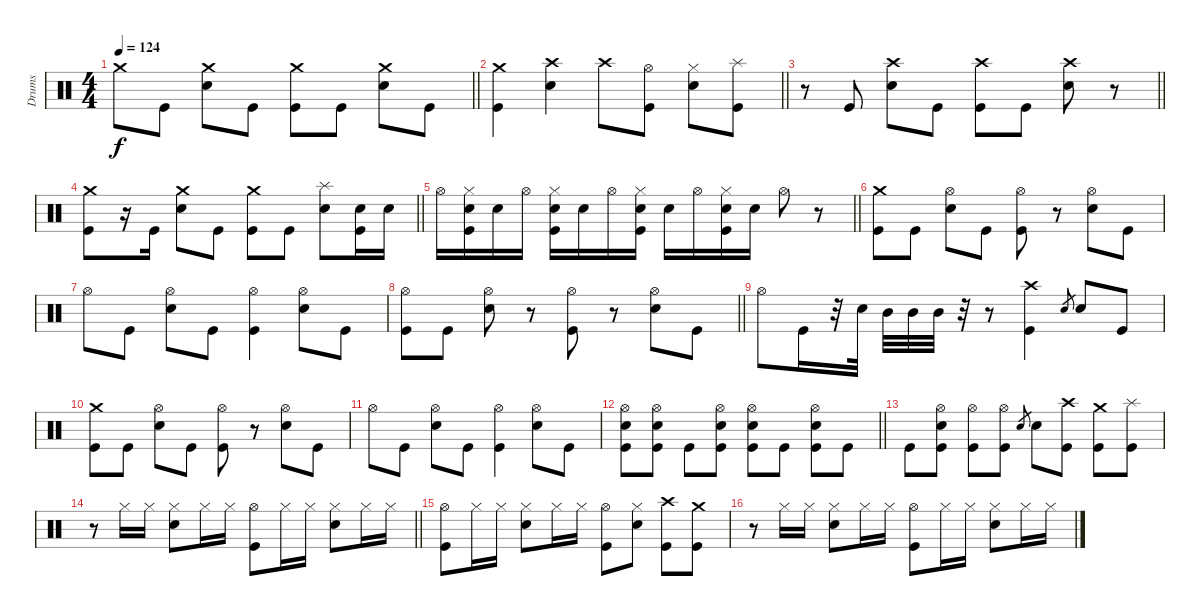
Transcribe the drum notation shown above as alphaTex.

\track ("Drums" "Drums") {instrument percussion}
\staff {score}
\articulation defaults
\ts (4 4)
\tempo 124
\clef neutral
\barLineRight lightlight
\ks c "Crash medium (hit)".8{dy f} "Kick (hit)".8
("Crash medium (hit)" "Snare (hit) 2").8 "Kick (hit)".8 ("Crash medium (hit)" "Kick (hit)").8 "Kick (hit)".8 ("Crash medium (hit)" "Snare (hit) 2").8 "Kick (hit)".8 |
\barLineRight lightlight
("Crash medium (hit)" "Kick (hit)").4 ("Crash high (hit)" "Snare (hit) 2").4 "Crash high (hit)".8 ("Hi-Hat (open)" "Kick (hit)").8 ("Hi-Hat (closed)" "Snare (hit) 2").8 ("Splash (hit)" "Kick (hit)").8 |
\barLineRight lightlight
r.8 "Kick (hit)".8 ("Crash high (hit)" "Snare (hit) 2").8 "Kick (hit)".8 ("Crash high (hit)" "Kick (hit)").8 "Kick (hit)".8 ("Crash high (hit)" "Snare (hit) 2").8 r.8 |
\barLineRight lightlight
("Crash medium (hit)" "Kick (hit)").8 r.16 "Kick (hit)".16 ("Crash medium (hit)" "Snare (hit) 2").8 "Kick (hit)".8 ("Crash medium (hit)" "Kick (hit)").8 "Kick (hit)".8 ("Splash (hit)" "Snare (hit) 2").8 ("Snare (hit) 2" "Kick (hit)").16 "Snare (hit) 2".16 |
\barLineRight lightlight "Hi-Hat (open)".16
("Hi-Hat (closed)" "Snare (hit) 2" "Kick (hit)").16 "Snare (hit) 2".16 "Hi-Hat (open)".16 ("Hi-Hat (closed)" "Snare (hit) 2" "Kick (hit)").16 "Snare (hit) 2".16 "Hi-Hat (open)".16 ("Hi-Hat (closed)" "Snare (hit) 2" "Kick (hit)").16 "Snare (hit) 2".16 "Hi-Hat (open)".16 ("Hi-Hat (closed)" "Snare (hit) 2" "Kick (hit)").16 "Snare (hit) 2".16 "Hi-Hat (open)".8 r.8 |
("Crash medium (hit)" "Kick (hit)").8 "Kick (hit)".8 ("Hi-Hat (open)" "Snare (hit) 2").8 "Kick (hit)".8 ("Hi-Hat (open)" "Kick (hit)").8 r.8 ("Hi-Hat (open)" "Snare (hit) 2").8 "Kick (hit)".8 |
"Hi-Hat (open)".8 "Kick (hit)".8 ("Hi-Hat (open)" "Snare (hit) 2").8 "Kick (hit)".8 ("Hi-Hat (open)" "Kick (hit)").4 ("Hi-Hat (open)" "Snare (hit) 2").8 "Kick (hit)".8 |
\barLineRight lightlight
("Hi-Hat (open)" "Kick (hit)").8 "Kick (hit)".8 ("Hi-Hat (open)" "Snare (hit) 2").8 r.8 ("Hi-Hat (open)" "Kick (hit)").8 r.8 ("Hi-Hat (open)" "Snare (hit) 2").8 "Kick (hit)".8 |
"Hi-Hat (open)".8 "Kick (hit)".16 r.32 "Snare (hit) 2".32 "Mid Tom (hit)".32 "Mid Tom (hit)".32 "Mid Tom (hit)".32 r.32 r.8 ("Crash high (hit)" "Kick (hit)").4 "Snare (hit) 2".8{gr} "Snare (hit) 2".8 "Kick (hit)".8 |
("Crash medium (hit)" "Kick (hit)").8 "Kick (hit)".8 ("Hi-Hat (open)" "Snare (hit) 2").8 "Kick (hit)".8 ("Hi-Hat (open)" "Kick (hit)").8 r.8 ("Hi-Hat (open)" "Snare (hit) 2").8 "Kick (hit)".8 |
"Hi-Hat (open)".8 "Kick (hit)".8 ("Hi-Hat (open)" "Snare (hit) 2").8 "Kick (hit)".8 ("Hi-Hat (open)" "Kick (hit)").4 ("Hi-Hat (open)" "Snare (hit) 2").8 "Kick (hit)".8 |
\barLineRight lightlight
("Hi-Hat (open)" "Snare (hit) 2" "Kick (hit)").8 ("Hi-Hat (open)" "Snare (hit) 2" "Kick (hit)").8 "Kick (hit)".8 ("Hi-Hat (open)" "Snare (hit) 2" "Kick (hit)").8 ("Hi-Hat (open)" "Snare (hit) 2" "Kick (hit)").8 "Kick (hit)".8 ("Hi-Hat (open)" "Snare (hit) 2" "Kick (hit)").8 "Kick (hit)".8 |
"Kick (hit)".8 ("Hi-Hat (open)" "Snare (hit) 2" "Kick (hit)").8 ("Hi-Hat (open)" "Kick (hit)").8 ("Hi-Hat (open)" "Kick (hit)").8 "Snare (hit) 2".8{gr} "Snare (hit) 2".8 ("Crash high (hit)" "Kick (hit)").8 ("Crash medium (hit)" "Kick (hit)").8 ("Splash (hit)" "Kick (hit)").8 |
\barLineRight lightlight
r.8 "Hi-Hat (closed)".16 "Hi-Hat (closed)".16 ("Hi-Hat (closed)" "Snare (hit) 2").8 "Hi-Hat (closed)".16 "Hi-Hat (closed)".16 ("Hi-Hat (open)" "Kick (hit)").8 "Hi-Hat (closed)".16 "Hi-Hat (closed)".16 ("Hi-Hat (closed)" "Snare (hit) 2").8 "Hi-Hat (closed)".16 "Hi-Hat (closed)".16 |
("Hi-Hat (open)" "Kick (hit)").8 "Hi-Hat (closed)".16 "Hi-Hat (closed)".16 ("Hi-Hat (closed)" "Snare (hit) 2").8 "Hi-Hat (closed)".16 "Hi-Hat (closed)".16 ("Hi-Hat (open)" "Kick (hit)").8 ("Hi-Hat (closed)" "Snare (hit) 2").8 ("Crash high (hit)" "Kick (hit)").8 ("Crash medium (hit)" "Kick (hit)").8 |
r.8 "Hi-Hat (closed)".16 "Hi-Hat (closed)".16 ("Hi-Hat (closed)" "Snare (hit) 2").8 "Hi-Hat (closed)".16 "Hi-Hat (closed)".16 ("Hi-Hat (open)" "Kick (hit)").8 "Hi-Hat (closed)".16 "Hi-Hat (closed)".16 ("Hi-Hat (closed)" "Snare (hit) 2").8 "Hi-Hat (closed)".16 "Hi-Hat (closed)".16
